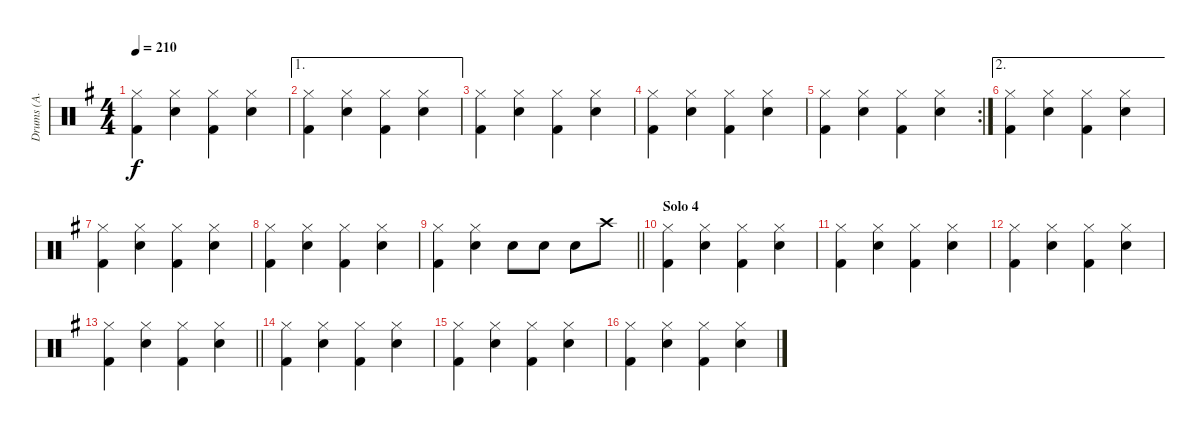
\track ("Drums (А. Манякин)" "Drums (А. ") {instrument percussion}
\staff {score}
\articulation defaults
\ts (4 4)
\tempo 210
\clef neutral
\ks g
("Hi-Hat (closed)" "Kick (hit) 2").4{dy f} ("Hi-Hat (closed)" "Snare (hit) 2").4 ("Hi-Hat (closed)" "Kick (hit) 2").4 ("Hi-Hat (closed)" "Snare (hit) 2").4 |
\ae 1
("Hi-Hat (closed)" "Kick (hit) 2").4 ("Hi-Hat (closed)" "Snare (hit) 2").4 ("Hi-Hat (closed)" "Kick (hit) 2").4 ("Hi-Hat (closed)" "Snare (hit) 2").4 |
("Hi-Hat (closed)" "Kick (hit) 2").4 ("Hi-Hat (closed)" "Snare (hit) 2").4 ("Hi-Hat (closed)" "Kick (hit) 2").4 ("Hi-Hat (closed)" "Snare (hit) 2").4 |
("Hi-Hat (closed)" "Kick (hit) 2").4 ("Hi-Hat (closed)" "Snare (hit) 2").4 ("Hi-Hat (closed)" "Kick (hit) 2").4 ("Hi-Hat (closed)" "Snare (hit) 2").4 |
\rc 2
("Hi-Hat (closed)" "Kick (hit) 2").4 ("Hi-Hat (closed)" "Snare (hit) 2").4 ("Hi-Hat (closed)" "Kick (hit) 2").4 ("Hi-Hat (closed)" "Snare (hit) 2").4 |
\ae 2
("Hi-Hat (closed)" "Kick (hit) 2").4 ("Hi-Hat (closed)" "Snare (hit) 2").4 ("Hi-Hat (closed)" "Kick (hit) 2").4 ("Hi-Hat (closed)" "Snare (hit) 2").4 |
("Hi-Hat (closed)" "Kick (hit) 2").4 ("Hi-Hat (closed)" "Snare (hit) 2").4 ("Hi-Hat (closed)" "Kick (hit) 2").4 ("Hi-Hat (closed)" "Snare (hit) 2").4 |
("Hi-Hat (closed)" "Kick (hit) 2").4 ("Hi-Hat (closed)" "Snare (hit) 2").4 ("Hi-Hat (closed)" "Kick (hit) 2").4 ("Hi-Hat (closed)" "Snare (hit) 2").4 |
\barLineRight lightlight
("Hi-Hat (closed)" "Kick (hit) 2").4 ("Hi-Hat (closed)" "Snare (hit) 2").4 "Snare (hit) 2".8 "Snare (hit) 2".8 "Snare (hit) 2".8 "Crash high (hit)".8 |
\section ("" "Solo 4")
("Hi-Hat (closed)" "Kick (hit) 2").4 ("Hi-Hat (closed)" "Snare (hit) 2").4 ("Hi-Hat (closed)" "Kick (hit) 2").4 ("Hi-Hat (closed)" "Snare (hit) 2").4 |
("Hi-Hat (closed)" "Kick (hit) 2").4 ("Hi-Hat (closed)" "Snare (hit) 2").4 ("Hi-Hat (closed)" "Kick (hit) 2").4 ("Hi-Hat (closed)" "Snare (hit) 2").4 |
("Hi-Hat (closed)" "Kick (hit) 2").4 ("Hi-Hat (closed)" "Snare (hit) 2").4 ("Hi-Hat (closed)" "Kick (hit) 2").4 ("Hi-Hat (closed)" "Snare (hit) 2").4 |
\barLineRight lightlight
("Hi-Hat (closed)" "Kick (hit) 2").4 ("Hi-Hat (closed)" "Snare (hit) 2").4 ("Hi-Hat (closed)" "Kick (hit) 2").4 ("Hi-Hat (closed)" "Snare (hit) 2").4 |
("Hi-Hat (closed)" "Kick (hit) 2").4 ("Hi-Hat (closed)" "Snare (hit) 2").4 ("Hi-Hat (closed)" "Kick (hit) 2").4 ("Hi-Hat (closed)" "Snare (hit) 2").4 |
("Hi-Hat (closed)" "Kick (hit) 2").4 ("Hi-Hat (closed)" "Snare (hit) 2").4 ("Hi-Hat (closed)" "Kick (hit) 2").4 ("Hi-Hat (closed)" "Snare (hit) 2").4 |
("Hi-Hat (closed)" "Kick (hit) 2").4 ("Hi-Hat (closed)" "Snare (hit) 2").4 ("Hi-Hat (closed)" "Kick (hit) 2").4 ("Hi-Hat (closed)" "Snare (hit) 2").4
